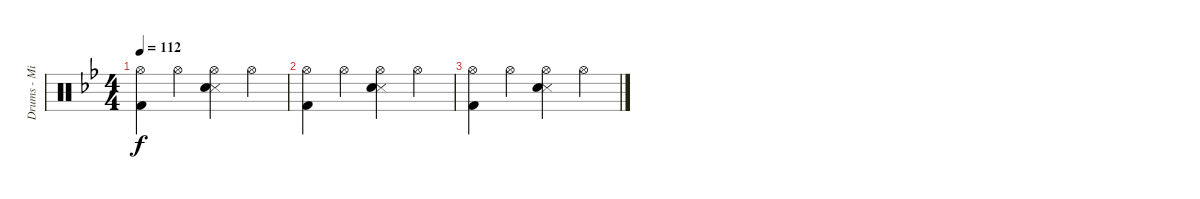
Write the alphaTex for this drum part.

\track ("Drums - Miko" "Drums - Mi") {instrument percussion}
\staff {score}
\articulation defaults
\ts (4 4)
\tempo 112
\clef neutral
\ks bb
("Hi-Hat (open)" "Kick (hit) 2").4{dy f} "Hi-Hat (open)".4 ("Hi-Hat (open)" "Snare (side stick) 3" "Electric Snare (hit)").4 "Hi-Hat (open)".4 |
("Hi-Hat (open)" "Kick (hit) 2").4 "Hi-Hat (open)".4 ("Hi-Hat (open)" "Snare (side stick) 3" "Electric Snare (hit)").4 "Hi-Hat (open)".4 |
("Hi-Hat (open)" "Kick (hit) 2").4 "Hi-Hat (open)".4 ("Hi-Hat (open)" "Snare (side stick) 3" "Electric Snare (hit)").4 "Hi-Hat (open)".4
